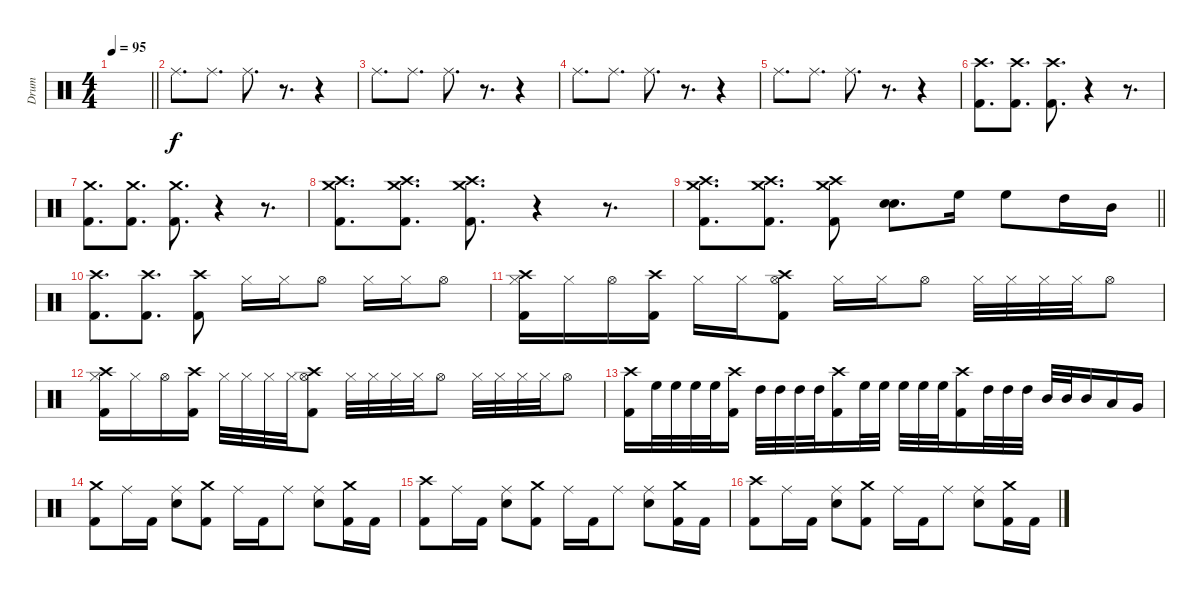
\track ("Drum" "Drum") {instrument percussion}
\staff {score}
\articulation defaults
\ts (4 4)
\tempo 95
\clef neutral
\barLineRight lightlight
\ks c
|
"Ride (middle)".8{d} "Ride (middle)".8{d} "Ride (middle)".8{d} r.8{d} r.4 |
"Ride (middle)".8{d} "Ride (middle)".8{d} "Ride (middle)".8{d} r.8{d} r.4 |
"Ride (middle)".8{d} "Ride (middle)".8{d} "Ride (middle)".8{d} r.8{d} r.4 |
"Ride (middle)".8{d} "Ride (middle)".8{d} "Ride (middle)".8{d} r.8{d} r.4 |
("Crash high (hit)" "Kick (hit) 2").8{d} ("Crash high (hit)" "Kick (hit) 2").8{d} ("Crash high (hit)" "Kick (hit) 2").8{d} r.4 r.8{d} |
("Crash medium (hit)" "Kick (hit) 2").8{d} ("Crash medium (hit)" "Kick (hit) 2").8{d} ("Crash medium (hit)" "Kick (hit) 2").8{d} r.4 r.8{d} |
("Crash high (hit)" "Crash medium (hit)" "Kick (hit) 2").8{d} ("Crash high (hit)" "Crash medium (hit)" "Kick (hit) 2").8{d} ("Crash high (hit)" "Crash medium (hit)" "Kick (hit) 2").8{d} r.4 r.8{d} |
\barLineRight lightlight
("Crash high (hit)" "Crash medium (hit)" "Kick (hit) 2").8{d} ("Crash high (hit)" "Crash medium (hit)" "Kick (hit) 2").8{d} ("Crash high (hit)" "Crash medium (hit)" "Kick (hit) 2").8 ("Electric Snare (hit)" "Electric Snare (hit)").8{d bd 120} "High Floor Tom (hit)".16 "High Floor Tom (hit)".8 "High Tom (hit)".16 "Mid Tom (hit)".16 |
("Crash high (hit)" "Kick (hit) 2").8{d} ("Crash high (hit)" "Kick (hit) 2").8{d} ("Crash high (hit)" "Kick (hit) 2").8 "Hi-Hat (closed)".16 "Hi-Hat (closed)".16 "Hi-Hat (open)".8 "Hi-Hat (closed)".16 "Hi-Hat (closed)".16 "Hi-Hat (open)".8 |
("Crash high (hit)" "Hi-Hat (closed)" "Kick (hit) 2").16 "Hi-Hat (closed)".16 "Hi-Hat (open)".16 ("Crash high (hit)" "Kick (hit) 2").16 "Hi-Hat (closed)".16 "Hi-Hat (closed)".16 ("Crash high (hit)" "Hi-Hat (open)" "Kick (hit) 2").8 "Hi-Hat (closed)".16 "Hi-Hat (closed)".16 "Hi-Hat (open)".8 "Hi-Hat (closed)".32 "Hi-Hat (closed)".32 "Hi-Hat (closed)".32 "Hi-Hat (closed)".32 "Hi-Hat (open)".8 |
("Crash high (hit)" "Hi-Hat (closed)" "Kick (hit) 2").16 "Hi-Hat (closed)".16 "Hi-Hat (open)".16 ("Crash high (hit)" "Kick (hit) 2").16 "Hi-Hat (closed)".32 "Hi-Hat (closed)".32 "Hi-Hat (closed)".32 "Hi-Hat (closed)".32 ("Crash high (hit)" "Hi-Hat (open)" "Kick (hit) 2").8 "Hi-Hat (closed)".32 "Hi-Hat (closed)".32 "Hi-Hat (closed)".32 "Hi-Hat (closed)".32 "Hi-Hat (open)".8 "Hi-Hat (closed)".32 "Hi-Hat (closed)".32 "Hi-Hat (closed)".32 "Hi-Hat (closed)".32 "Hi-Hat (open)".8 |
("Crash high (hit)" "Kick (hit) 2").16 "High Floor Tom (hit)".32 "High Floor Tom (hit)".32 "High Floor Tom (hit)".32 "High Floor Tom (hit)".32 ("Crash high (hit)" "Kick (hit) 2").16 "High Tom (hit)".32 "High Tom (hit)".32 "High Tom (hit)".32 "High Tom (hit)".32 ("Crash high (hit)" "Kick (hit) 2").16 "High Floor Tom (hit)".32 "High Floor Tom (hit)".32 "High Floor Tom (hit)".32 "High Floor Tom (hit)".32 "High Floor Tom (hit)".32 ("Crash high (hit)" "Kick (hit) 2").16 "High Tom (hit)".32 "High Tom (hit)".32 "High Tom (hit)".32 "Mid Tom (hit)".32 "Mid Tom (hit)".32 "Mid Tom (hit)".16 "Low Tom (hit)".16 "Very Low Tom (hit)".16 |
("Crash medium (hit)" "Kick (hit) 2").8 "Ride (middle)".16 "Kick (hit) 2".16 ("Ride (middle)" "Electric Snare (hit)").8 ("Crash medium (hit)" "Kick (hit) 2").8 "Ride (middle)".16 "Kick (hit) 2".16 "Ride (middle)".8 ("Ride (middle)" "Electric Snare (hit)").8 ("Crash medium (hit)" "Kick (hit) 2").16 "Kick (hit) 2".16 |
("Crash high (hit)" "Kick (hit) 2").8 "Ride (middle)".16 "Kick (hit) 2".16 ("Ride (middle)" "Electric Snare (hit)").8 ("Crash medium (hit)" "Kick (hit) 2").8 "Ride (middle)".16 "Kick (hit) 2".16 "Ride (middle)".8 ("Ride (middle)" "Electric Snare (hit)").8 ("Crash medium (hit)" "Kick (hit) 2").16 "Kick (hit) 2".16 |
("Crash high (hit)" "Kick (hit) 2").8 "Ride (middle)".16 "Kick (hit) 2".16 ("Ride (middle)" "Electric Snare (hit)").8 ("Crash medium (hit)" "Kick (hit) 2").8 "Ride (middle)".16 "Kick (hit) 2".16 "Ride (middle)".8 ("Ride (middle)" "Electric Snare (hit)").8 ("Crash medium (hit)" "Kick (hit) 2").16 "Kick (hit) 2".16
